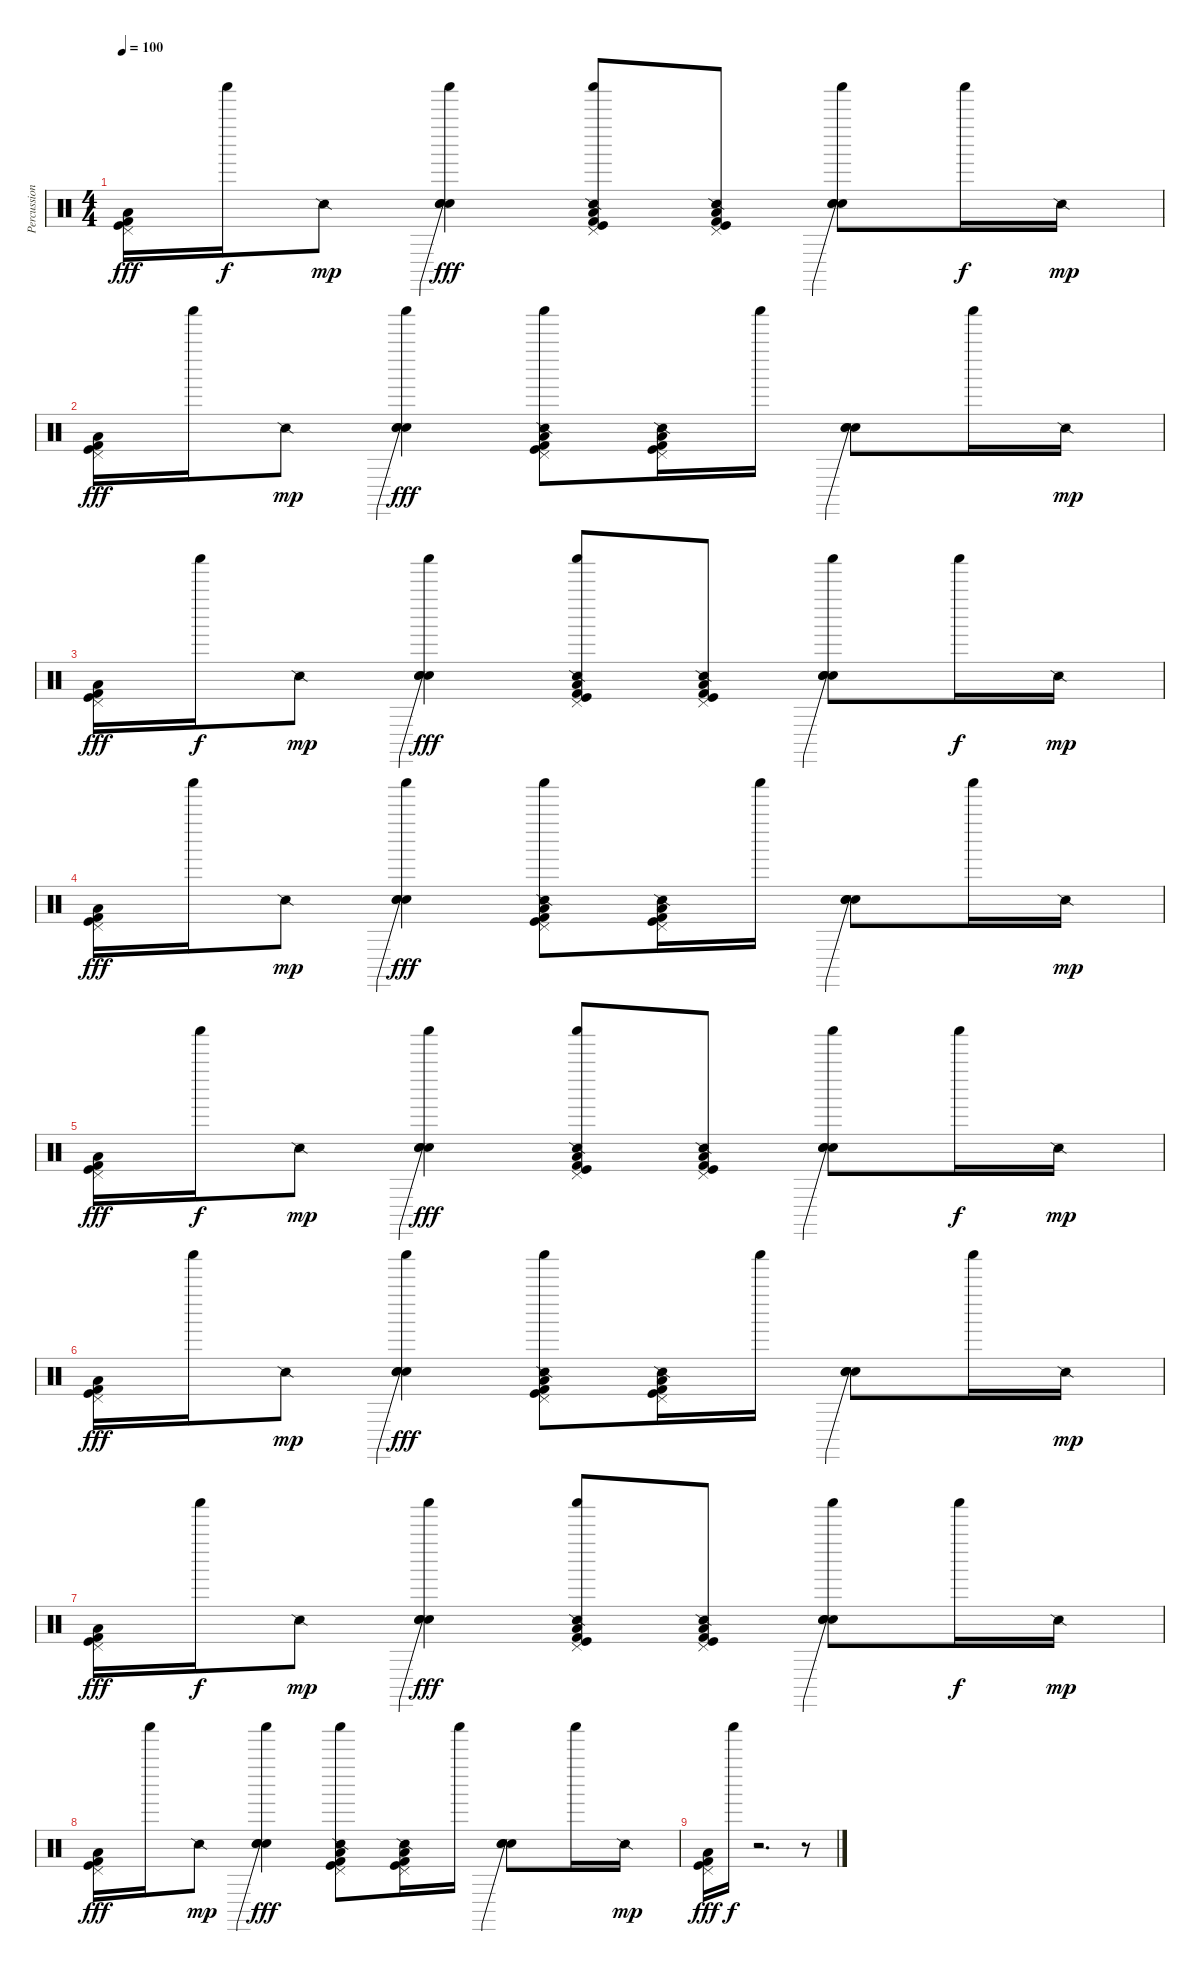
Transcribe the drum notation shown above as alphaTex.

\track ("Percussion" "Percussion") {instrument percussion}
\staff {score}
\articulation defaults
\ts (4 4)
\tempo 100
\clef neutral
\ks c
("Pedal Hi-Hat (hit)" "Low Floor Tom (hit)" "Kick (hit) 2" "Kick (hit)").16{dy fff} "Shaker (hit)".16{dy f} "Snare (side stick) 2".8{dy mp} ("Shaker (hit)" "Electric Snare (hit)" "Hand Clap (hit)" "Hand Clap (hit)"{be (prebend 0 6 60 6)}).4{dy fff} ("Snare (side stick) 2" "Pedal Hi-Hat (hit)" "Shaker (hit)" "Low Floor Tom (hit)" "Kick (hit) 2" "Kick (hit)").8 ("Snare (side stick) 2" "Pedal Hi-Hat (hit)" "Low Floor Tom (hit)" "Kick (hit) 2" "Kick (hit)").8 ("Shaker (hit)" "Electric Snare (hit)" "Hand Clap (hit)" "Hand Clap (hit)"{be (prebend 0 6 60 6)}).8 "Shaker (hit)".16{dy f} "Snare (side stick) 2".16{dy mp} |
("Pedal Hi-Hat (hit)" "Low Floor Tom (hit)" "Kick (hit) 2" "Kick (hit)").16{dy fff} "Shaker (hit)".16 "Snare (side stick) 2".8{dy mp} ("Shaker (hit)" "Electric Snare (hit)" "Hand Clap (hit)" "Hand Clap (hit)"{be (prebend 0 6 60 6)}).4{dy fff} ("Snare (side stick) 2" "Pedal Hi-Hat (hit)" "Shaker (hit)" "Low Floor Tom (hit)" "Kick (hit) 2" "Kick (hit)").8 ("Snare (side stick) 2" "Pedal Hi-Hat (hit)" "Low Floor Tom (hit)" "Kick (hit) 2" "Kick (hit)").16 "Shaker (hit)".16 ("Electric Snare (hit)" "Hand Clap (hit)" "Hand Clap (hit)"{be (prebend 0 6 60 6)}).8 "Shaker (hit)".16 "Snare (side stick) 2".16{dy mp} |
("Pedal Hi-Hat (hit)" "Low Floor Tom (hit)" "Kick (hit) 2" "Kick (hit)").16{dy fff} "Shaker (hit)".16{dy f} "Snare (side stick) 2".8{dy mp} ("Shaker (hit)" "Electric Snare (hit)" "Hand Clap (hit)" "Hand Clap (hit)"{be (prebend 0 6 60 6)}).4{dy fff} ("Snare (side stick) 2" "Pedal Hi-Hat (hit)" "Shaker (hit)" "Low Floor Tom (hit)" "Kick (hit) 2" "Kick (hit)").8 ("Snare (side stick) 2" "Pedal Hi-Hat (hit)" "Low Floor Tom (hit)" "Kick (hit) 2" "Kick (hit)").8 ("Shaker (hit)" "Electric Snare (hit)" "Hand Clap (hit)" "Hand Clap (hit)"{be (prebend 0 6 60 6)}).8 "Shaker (hit)".16{dy f} "Snare (side stick) 2".16{dy mp} |
("Pedal Hi-Hat (hit)" "Low Floor Tom (hit)" "Kick (hit) 2" "Kick (hit)").16{dy fff} "Shaker (hit)".16 "Snare (side stick) 2".8{dy mp} ("Shaker (hit)" "Electric Snare (hit)" "Hand Clap (hit)" "Hand Clap (hit)"{be (prebend 0 6 60 6)}).4{dy fff} ("Snare (side stick) 2" "Pedal Hi-Hat (hit)" "Shaker (hit)" "Low Floor Tom (hit)" "Kick (hit) 2" "Kick (hit)").8 ("Snare (side stick) 2" "Pedal Hi-Hat (hit)" "Low Floor Tom (hit)" "Kick (hit) 2" "Kick (hit)").16 "Shaker (hit)".16 ("Electric Snare (hit)" "Hand Clap (hit)" "Hand Clap (hit)"{be (prebend 0 6 60 6)}).8 "Shaker (hit)".16 "Snare (side stick) 2".16{dy mp} |
("Pedal Hi-Hat (hit)" "Low Floor Tom (hit)" "Kick (hit) 2" "Kick (hit)").16{dy fff} "Shaker (hit)".16{dy f} "Snare (side stick) 2".8{dy mp} ("Shaker (hit)" "Electric Snare (hit)" "Hand Clap (hit)" "Hand Clap (hit)"{be (prebend 0 6 60 6)}).4{dy fff} ("Snare (side stick) 2" "Pedal Hi-Hat (hit)" "Shaker (hit)" "Low Floor Tom (hit)" "Kick (hit) 2" "Kick (hit)").8 ("Snare (side stick) 2" "Pedal Hi-Hat (hit)" "Low Floor Tom (hit)" "Kick (hit) 2" "Kick (hit)").8 ("Shaker (hit)" "Electric Snare (hit)" "Hand Clap (hit)" "Hand Clap (hit)"{be (prebend 0 6 60 6)}).8 "Shaker (hit)".16{dy f} "Snare (side stick) 2".16{dy mp} |
("Pedal Hi-Hat (hit)" "Low Floor Tom (hit)" "Kick (hit) 2" "Kick (hit)").16{dy fff} "Shaker (hit)".16 "Snare (side stick) 2".8{dy mp} ("Shaker (hit)" "Electric Snare (hit)" "Hand Clap (hit)" "Hand Clap (hit)"{be (prebend 0 6 60 6)}).4{dy fff} ("Snare (side stick) 2" "Pedal Hi-Hat (hit)" "Shaker (hit)" "Low Floor Tom (hit)" "Kick (hit) 2" "Kick (hit)").8 ("Snare (side stick) 2" "Pedal Hi-Hat (hit)" "Low Floor Tom (hit)" "Kick (hit) 2" "Kick (hit)").16 "Shaker (hit)".16 ("Electric Snare (hit)" "Hand Clap (hit)" "Hand Clap (hit)"{be (prebend 0 6 60 6)}).8 "Shaker (hit)".16 "Snare (side stick) 2".16{dy mp} |
("Pedal Hi-Hat (hit)" "Low Floor Tom (hit)" "Kick (hit) 2" "Kick (hit)").16{dy fff} "Shaker (hit)".16{dy f} "Snare (side stick) 2".8{dy mp} ("Shaker (hit)" "Electric Snare (hit)" "Hand Clap (hit)" "Hand Clap (hit)"{be (prebend 0 6 60 6)}).4{dy fff} ("Snare (side stick) 2" "Pedal Hi-Hat (hit)" "Shaker (hit)" "Low Floor Tom (hit)" "Kick (hit) 2" "Kick (hit)").8 ("Snare (side stick) 2" "Pedal Hi-Hat (hit)" "Low Floor Tom (hit)" "Kick (hit) 2" "Kick (hit)").8 ("Shaker (hit)" "Electric Snare (hit)" "Hand Clap (hit)" "Hand Clap (hit)"{be (prebend 0 6 60 6)}).8 "Shaker (hit)".16{dy f} "Snare (side stick) 2".16{dy mp} |
("Pedal Hi-Hat (hit)" "Low Floor Tom (hit)" "Kick (hit) 2" "Kick (hit)").16{dy fff} "Shaker (hit)".16 "Snare (side stick) 2".8{dy mp} ("Shaker (hit)" "Electric Snare (hit)" "Hand Clap (hit)" "Hand Clap (hit)"{be (prebend 0 6 60 6)}).4{dy fff} ("Snare (side stick) 2" "Pedal Hi-Hat (hit)" "Shaker (hit)" "Low Floor Tom (hit)" "Kick (hit) 2" "Kick (hit)").8 ("Snare (side stick) 2" "Pedal Hi-Hat (hit)" "Low Floor Tom (hit)" "Kick (hit) 2" "Kick (hit)").16 "Shaker (hit)".16 ("Electric Snare (hit)" "Hand Clap (hit)" "Hand Clap (hit)"{be (prebend 0 6 60 6)}).8 "Shaker (hit)".16 "Snare (side stick) 2".16{dy mp} |
("Pedal Hi-Hat (hit)" "Low Floor Tom (hit)" "Kick (hit) 2" "Kick (hit)").16{dy fff} "Shaker (hit)".16{dy f} r.2{d} r.8
